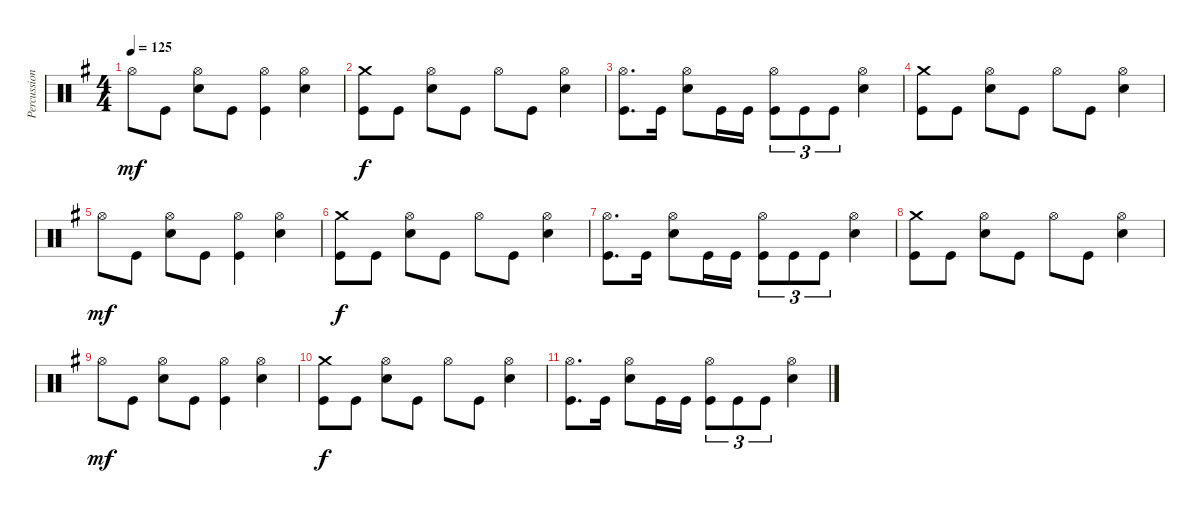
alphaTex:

\track ("Percussion" "Percussion") {instrument percussion}
\staff {score}
\articulation defaults
\ts (4 4)
\tempo 125
\clef neutral
\ks g "Hi-Hat (open)".8{dy mf} "Kick (hit)".8
("Hi-Hat (open)" "Snare (hit) 2").8 "Kick (hit)".8 ("Hi-Hat (open)" "Kick (hit)").4 ("Hi-Hat (open)" "Snare (hit) 2").4 |
("Crash medium (hit)" "Kick (hit)").8{dy f} "Kick (hit)".8 ("Hi-Hat (open)" "Snare (hit) 2").8 "Kick (hit)".8 "Hi-Hat (open)".8 "Kick (hit)".8 ("Hi-Hat (open)" "Snare (hit) 2").4 |
("Hi-Hat (open)" "Kick (hit)").8{d} "Kick (hit)".16 ("Hi-Hat (open)" "Snare (hit) 2").8 "Kick (hit)".16 "Kick (hit)".16 ("Hi-Hat (open)" "Kick (hit)").8{tu (3 2)} "Kick (hit)".8{tu (3 2)} "Kick (hit)".8{tu (3 2)} ("Hi-Hat (open)" "Snare (hit) 2").4 |
("Crash medium (hit)" "Kick (hit)").8 "Kick (hit)".8 ("Hi-Hat (open)" "Snare (hit) 2").8 "Kick (hit)".8 "Hi-Hat (open)".8 "Kick (hit)".8 ("Hi-Hat (open)" "Snare (hit) 2").4 |
"Hi-Hat (open)".8{dy mf} "Kick (hit)".8 ("Hi-Hat (open)" "Snare (hit) 2").8 "Kick (hit)".8 ("Hi-Hat (open)" "Kick (hit)").4 ("Hi-Hat (open)" "Snare (hit) 2").4 |
("Crash medium (hit)" "Kick (hit)").8{dy f} "Kick (hit)".8 ("Hi-Hat (open)" "Snare (hit) 2").8 "Kick (hit)".8 "Hi-Hat (open)".8 "Kick (hit)".8 ("Hi-Hat (open)" "Snare (hit) 2").4 |
("Hi-Hat (open)" "Kick (hit)").8{d} "Kick (hit)".16 ("Hi-Hat (open)" "Snare (hit) 2").8 "Kick (hit)".16 "Kick (hit)".16 ("Hi-Hat (open)" "Kick (hit)").8{tu (3 2)} "Kick (hit)".8{tu (3 2)} "Kick (hit)".8{tu (3 2)} ("Hi-Hat (open)" "Snare (hit) 2").4 |
("Crash medium (hit)" "Kick (hit)").8 "Kick (hit)".8 ("Hi-Hat (open)" "Snare (hit) 2").8 "Kick (hit)".8 "Hi-Hat (open)".8 "Kick (hit)".8 ("Hi-Hat (open)" "Snare (hit) 2").4 |
"Hi-Hat (open)".8{dy mf} "Kick (hit)".8 ("Hi-Hat (open)" "Snare (hit) 2").8 "Kick (hit)".8 ("Hi-Hat (open)" "Kick (hit)").4 ("Hi-Hat (open)" "Snare (hit) 2").4 |
("Crash medium (hit)" "Kick (hit)").8{dy f} "Kick (hit)".8 ("Hi-Hat (open)" "Snare (hit) 2").8 "Kick (hit)".8 "Hi-Hat (open)".8 "Kick (hit)".8 ("Hi-Hat (open)" "Snare (hit) 2").4 |
("Hi-Hat (open)" "Kick (hit)").8{d} "Kick (hit)".16 ("Hi-Hat (open)" "Snare (hit) 2").8 "Kick (hit)".16 "Kick (hit)".16 ("Hi-Hat (open)" "Kick (hit)").8{tu (3 2)} "Kick (hit)".8{tu (3 2)} "Kick (hit)".8{tu (3 2)} ("Hi-Hat (open)" "Snare (hit) 2").4
